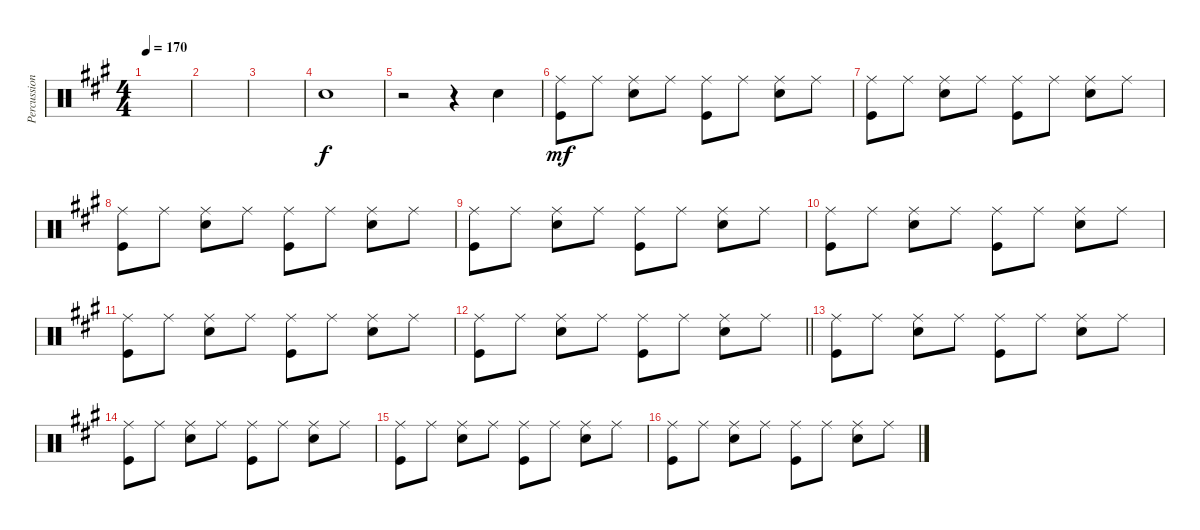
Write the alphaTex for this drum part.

\track ("Percussion" "Percussion") {instrument percussion}
\staff {score}
\articulation defaults
\ts (4 4)
\tempo 170
\clef neutral
\ks a
|
|
|
"Snare (hit) 2".1 |
r.2 r.4 "Snare (hit) 2".4 |
("Ride (middle)" "Kick (hit)").8{dy mf} "Ride (middle)".8 ("Ride (middle)" "Snare (hit) 2").8 "Ride (middle)".8 ("Ride (middle)" "Kick (hit)").8 "Ride (middle)".8 ("Ride (middle)" "Snare (hit) 2").8 "Ride (middle)".8 |
("Ride (middle)" "Kick (hit)").8 "Ride (middle)".8 ("Ride (middle)" "Snare (hit) 2").8 "Ride (middle)".8 ("Ride (middle)" "Kick (hit)").8 "Ride (middle)".8 ("Ride (middle)" "Snare (hit) 2").8 "Ride (middle)".8 |
("Ride (middle)" "Kick (hit)").8 "Ride (middle)".8 ("Ride (middle)" "Snare (hit) 2").8 "Ride (middle)".8 ("Ride (middle)" "Kick (hit)").8 "Ride (middle)".8 ("Ride (middle)" "Snare (hit) 2").8 "Ride (middle)".8 |
("Ride (middle)" "Kick (hit)").8 "Ride (middle)".8 ("Ride (middle)" "Snare (hit) 2").8 "Ride (middle)".8 ("Ride (middle)" "Kick (hit)").8 "Ride (middle)".8 ("Ride (middle)" "Snare (hit) 2").8 "Ride (middle)".8 |
("Ride (middle)" "Kick (hit)").8 "Ride (middle)".8 ("Ride (middle)" "Snare (hit) 2").8 "Ride (middle)".8 ("Ride (middle)" "Kick (hit)").8 "Ride (middle)".8 ("Ride (middle)" "Snare (hit) 2").8 "Ride (middle)".8 |
("Ride (middle)" "Kick (hit)").8 "Ride (middle)".8 ("Ride (middle)" "Snare (hit) 2").8 "Ride (middle)".8 ("Ride (middle)" "Kick (hit)").8 "Ride (middle)".8 ("Ride (middle)" "Snare (hit) 2").8 "Ride (middle)".8 |
\barLineRight lightlight
("Ride (middle)" "Kick (hit)").8 "Ride (middle)".8 ("Ride (middle)" "Snare (hit) 2").8 "Ride (middle)".8 ("Ride (middle)" "Kick (hit)").8 "Ride (middle)".8 ("Ride (middle)" "Snare (hit) 2").8 "Ride (middle)".8 |
("Ride (middle)" "Kick (hit)").8 "Ride (middle)".8 ("Ride (middle)" "Snare (hit) 2").8 "Ride (middle)".8 ("Ride (middle)" "Kick (hit)").8 "Ride (middle)".8 ("Ride (middle)" "Snare (hit) 2").8 "Ride (middle)".8 |
("Ride (middle)" "Kick (hit)").8 "Ride (middle)".8 ("Ride (middle)" "Snare (hit) 2").8 "Ride (middle)".8 ("Ride (middle)" "Kick (hit)").8 "Ride (middle)".8 ("Ride (middle)" "Snare (hit) 2").8 "Ride (middle)".8 |
("Ride (middle)" "Kick (hit)").8 "Ride (middle)".8 ("Ride (middle)" "Snare (hit) 2").8 "Ride (middle)".8 ("Ride (middle)" "Kick (hit)").8 "Ride (middle)".8 ("Ride (middle)" "Snare (hit) 2").8 "Ride (middle)".8 |
("Ride (middle)" "Kick (hit)").8 "Ride (middle)".8 ("Ride (middle)" "Snare (hit) 2").8 "Ride (middle)".8 ("Ride (middle)" "Kick (hit)").8 "Ride (middle)".8 ("Ride (middle)" "Snare (hit) 2").8 "Ride (middle)".8
